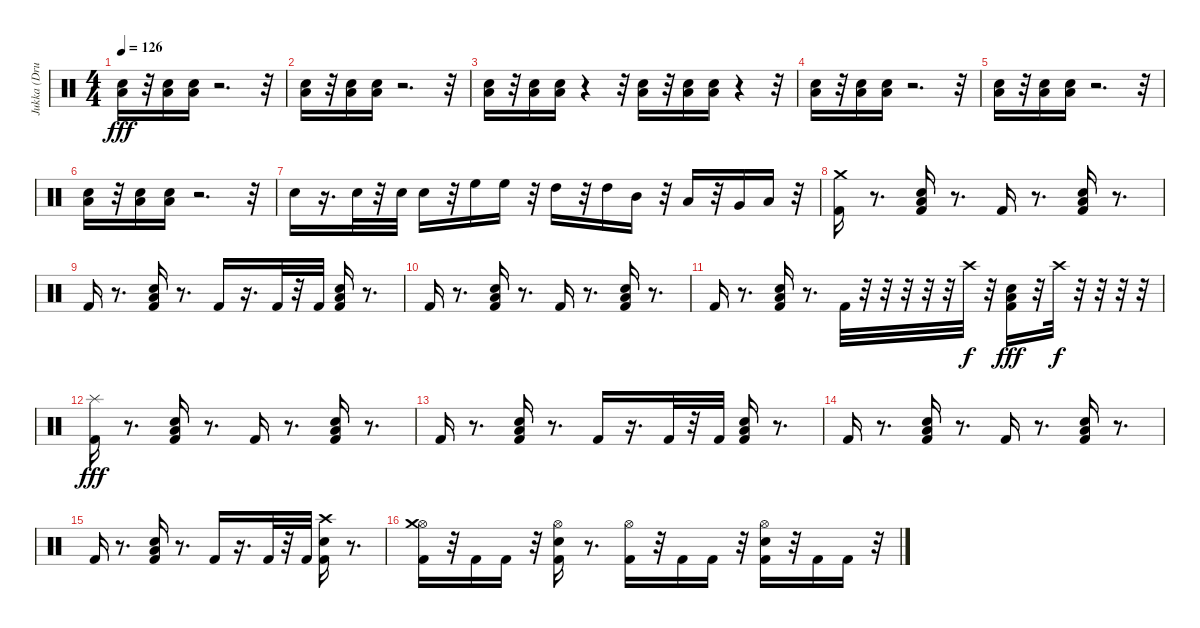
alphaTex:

\track ("Jukka (Drums)" "Jukka (Dru") {instrument percussion}
\staff {score}
\articulation defaults
\ts (4 4)
\tempo 126
\clef neutral
\ks c
("Electric Snare (hit)" "Low Floor Tom (hit)").16{dy fff} r.32 ("Electric Snare (hit)" "Low Floor Tom (hit)").16 ("Electric Snare (hit)" "Low Floor Tom (hit)").16 r.2{d} r.32 |
("Electric Snare (hit)" "Low Floor Tom (hit)").16 r.32 ("Electric Snare (hit)" "Low Floor Tom (hit)").16 ("Electric Snare (hit)" "Low Floor Tom (hit)").16 r.2{d} r.32 |
("Electric Snare (hit)" "Low Floor Tom (hit)").16 r.32 ("Electric Snare (hit)" "Low Floor Tom (hit)").16 ("Electric Snare (hit)" "Low Floor Tom (hit)").16 r.4 r.32 ("Electric Snare (hit)" "Low Floor Tom (hit)").16 r.32 ("Electric Snare (hit)" "Low Floor Tom (hit)").16 ("Electric Snare (hit)" "Low Floor Tom (hit)").16 r.4 r.32 |
("Electric Snare (hit)" "Low Floor Tom (hit)").16 r.32 ("Electric Snare (hit)" "Low Floor Tom (hit)").16 ("Electric Snare (hit)" "Low Floor Tom (hit)").16 r.2{d} r.32 |
("Electric Snare (hit)" "Low Floor Tom (hit)").16 r.32 ("Electric Snare (hit)" "Low Floor Tom (hit)").16 ("Electric Snare (hit)" "Low Floor Tom (hit)").16 r.2{d} r.32 |
("Electric Snare (hit)" "Low Floor Tom (hit)").16 r.32 ("Electric Snare (hit)" "Low Floor Tom (hit)").16 ("Electric Snare (hit)" "Low Floor Tom (hit)").16 r.2{d} r.32 |
"Electric Snare (hit)".16 r.16{d} "Electric Snare (hit)".32 r.32 "Electric Snare (hit)".32 "Electric Snare (hit)".16 r.32 "High Floor Tom (hit)".16 "High Floor Tom (hit)".16 r.32 "High Tom (hit)".16 r.32 "High Tom (hit)".16 "Mid Tom (hit)".16 r.32 "Low Tom (hit)".16 r.32 "Very Low Tom (hit)".16 "Low Floor Tom (hit)".16 r.32 |
("Kick (hit) 2" "Crash medium (hit)").16 r.8{d} ("Electric Snare (hit)" "Low Floor Tom (hit)" "Kick (hit) 2").16 r.8{d} "Kick (hit) 2".16 r.8{d} ("Electric Snare (hit)" "Low Floor Tom (hit)" "Kick (hit) 2").16 r.8{d} |
"Kick (hit) 2".16 r.8{d} ("Electric Snare (hit)" "Low Floor Tom (hit)" "Kick (hit) 2").16 r.8{d} "Kick (hit) 2".16 r.16{d} "Kick (hit) 2".32 r.32 "Kick (hit) 2".32 ("Electric Snare (hit)" "Low Floor Tom (hit)" "Kick (hit) 2").16 r.8{d} |
"Kick (hit) 2".16 r.8{d} ("Electric Snare (hit)" "Low Floor Tom (hit)" "Kick (hit) 2").16 r.8{d} "Kick (hit) 2".16 r.8{d} ("Electric Snare (hit)" "Low Floor Tom (hit)" "Kick (hit) 2").16 r.8{d} |
"Kick (hit) 2".16 r.8{d} ("Electric Snare (hit)" "Low Floor Tom (hit)" "Kick (hit) 2").16 r.8{d} "Kick (hit) 2".32 r.32 r.32 r.32 r.32 r.32 "Crash high (hit)".32{dy f} r.32 ("Electric Snare (hit)" "Low Floor Tom (hit)" "Kick (hit) 2").16{dy fff} r.32 "Crash high (hit)".32{dy f} r.32 r.32 r.32 r.32 |
("Kick (hit) 2" "Splash (hit)").16{dy fff} r.8{d} ("Electric Snare (hit)" "Low Floor Tom (hit)" "Kick (hit) 2").16 r.8{d} "Kick (hit) 2".16 r.8{d} ("Electric Snare (hit)" "Low Floor Tom (hit)" "Kick (hit) 2").16 r.8{d} |
"Kick (hit) 2".16 r.8{d} ("Electric Snare (hit)" "Low Floor Tom (hit)" "Kick (hit) 2").16 r.8{d} "Kick (hit) 2".16 r.16{d} "Kick (hit) 2".32 r.32 "Kick (hit) 2".32 ("Electric Snare (hit)" "Low Floor Tom (hit)" "Kick (hit) 2").16 r.8{d} |
"Kick (hit) 2".16 r.8{d} ("Electric Snare (hit)" "Low Floor Tom (hit)" "Kick (hit) 2").16 r.8{d} "Kick (hit) 2".16 r.8{d} ("Electric Snare (hit)" "Low Floor Tom (hit)" "Kick (hit) 2").16 r.8{d} |
"Kick (hit) 2".16 r.8{d} ("Electric Snare (hit)" "Low Floor Tom (hit)" "Kick (hit) 2").16 r.8{d} "Kick (hit) 2".16 r.16{d} "Kick (hit) 2".32 r.32 "Kick (hit) 2".32 ("Electric Snare (hit)" "Kick (hit) 2" "Crash high (hit)").16 r.8{d} |
("Kick (hit) 2" "Hi-Hat (open)" "Crash medium (hit)").16 r.32 "Kick (hit) 2".16 "Kick (hit) 2".16 r.32 ("Electric Snare (hit)" "Kick (hit) 2" "Hi-Hat (open)").16 r.8{d} ("Kick (hit) 2" "Hi-Hat (open)").16 r.32 "Kick (hit) 2".16 "Kick (hit) 2".16 r.32 ("Electric Snare (hit)" "Kick (hit) 2" "Hi-Hat (open)").16 r.32 "Kick (hit) 2".16 "Kick (hit) 2".16 r.32
